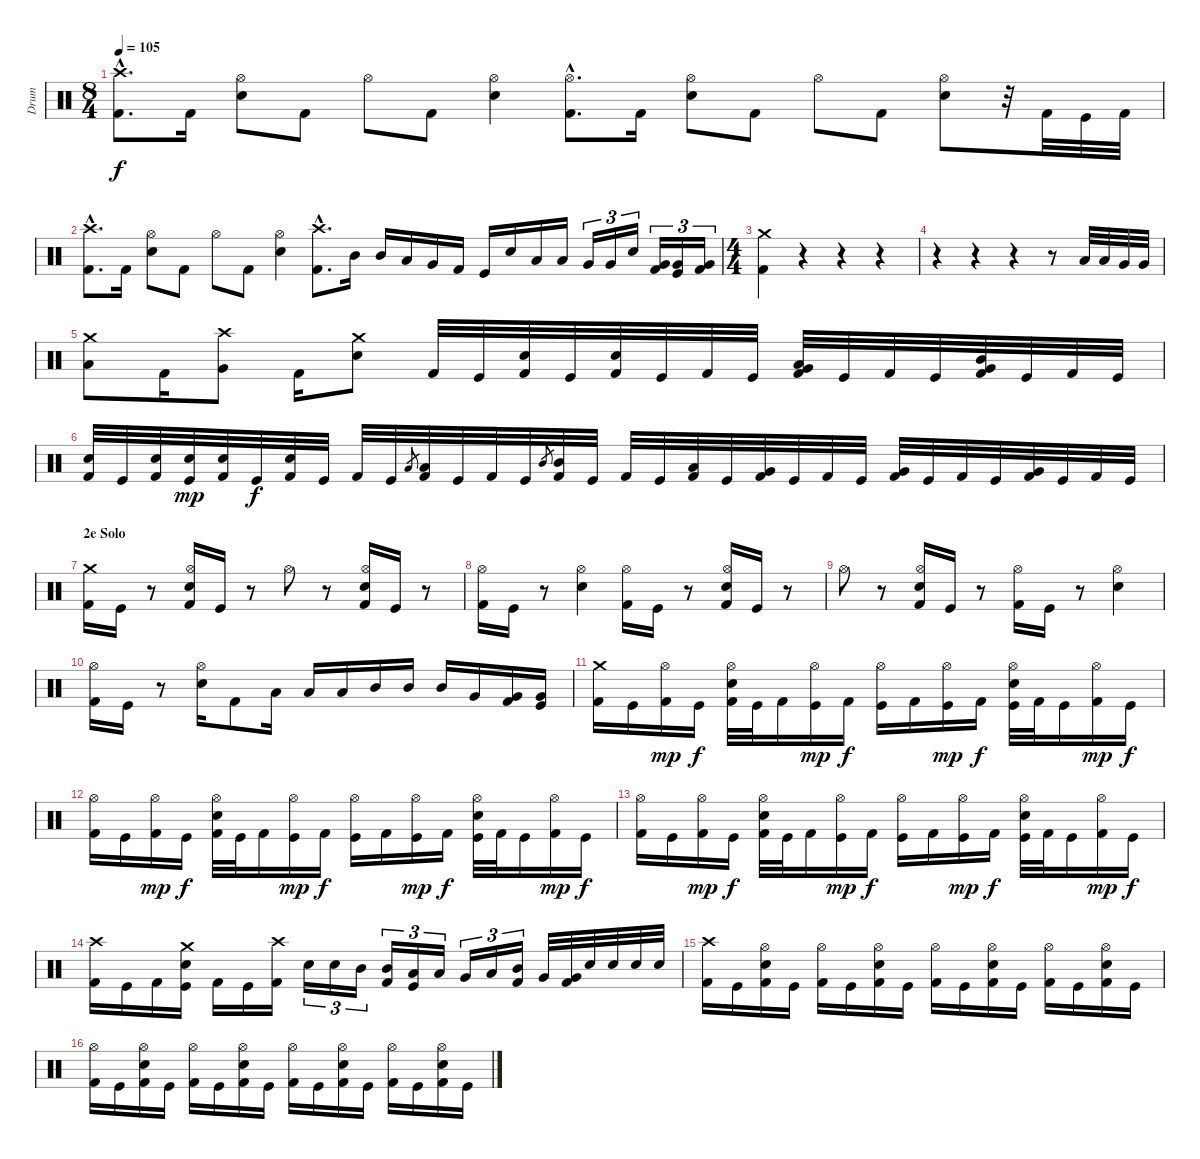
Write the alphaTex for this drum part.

\track ("Drum" "Drum") {instrument percussion}
\staff {score}
\articulation defaults
\ts (8 4)
\tempo 105
\clef neutral
\ks c
("Crash high (hit)"{hac} "Kick (hit) 2").8{d dy f} "Kick (hit) 2".16 ("Hi-Hat (open)" "Snare (hit) 2").8 "Kick (hit) 2".8 "Hi-Hat (open)".8 "Kick (hit) 2".8 ("Hi-Hat (open)" "Snare (hit) 2").4 ("Hi-Hat (open)"{hac} "Kick (hit) 2").8{d} "Kick (hit) 2".16 ("Hi-Hat (open)" "Snare (hit) 2").8 "Kick (hit) 2".8 "Hi-Hat (open)".8 "Kick (hit) 2".8 ("Hi-Hat (open)" "Snare (hit) 2").8 r.32 "Kick (hit) 2".32 "Kick (hit)".32 "Kick (hit) 2".32 |
("Crash high (hit)"{hac} "Kick (hit) 2").8{d} "Kick (hit) 2".16 ("Hi-Hat (open)" "Snare (hit) 2").8 "Kick (hit) 2".8 "Hi-Hat (open)".8 "Kick (hit) 2".8 ("Hi-Hat (open)" "Snare (hit) 2").4 ("Crash high (hit)"{hac} "Kick (hit) 2").8{d} "Mid Tom (hit)".16 "Mid Tom (hit)".16 "Low Tom (hit)".16 "Very Low Tom (hit)".16 "Kick (hit) 2".16 "Kick (hit)".16 "Snare (hit) 2".16 "Low Tom (hit)".16 "Low Tom (hit)".16 "Very Low Tom (hit)".16{tu (3 2)} "Very Low Tom (hit)".16{tu (3 2)} "Snare (hit) 2".16{tu (3 2)} ("Very Low Tom (hit)" "Kick (hit) 2").16{tu (3 2)} ("Very Low Tom (hit)" "Kick (hit)").16{tu (3 2)} ("Very Low Tom (hit)" "Kick (hit) 2").16{tu (3 2)} |
\ts (4 4)
("Crash medium (hit)" "Kick (hit) 2").4 r.4 r.4 r.4 |
r.4 r.4 r.4 r.8 "Low Tom (hit)".32 "Low Tom (hit)".32 "Very Low Tom (hit)".32 "Very Low Tom (hit)".32 |
("Crash medium (hit)" "Low Tom (hit)").8 "Kick (hit) 2".16 ("Crash high (hit)" "Very Low Tom (hit)").8 "Kick (hit) 2".16 ("Crash medium (hit)" "Snare (hit) 2").8 "Kick (hit) 2".32 "Kick (hit)".32 ("Snare (hit) 2" "Kick (hit) 2").32 "Kick (hit)".32 ("Snare (hit) 2" "Kick (hit) 2").32 "Kick (hit)".32 "Kick (hit) 2".32 "Kick (hit)".32 ("Low Tom (hit)" "Very Low Tom (hit)" "Kick (hit) 2").32 "Kick (hit)".32 "Kick (hit) 2".32 "Kick (hit)".32 ("Mid Tom (hit)" "Very Low Tom (hit)" "Kick (hit) 2").32 "Kick (hit)".32 "Kick (hit) 2".32 "Kick (hit)".32 |
("Snare (hit) 2" "Kick (hit) 2").32 "Kick (hit)".32 ("Snare (hit) 2" "Kick (hit) 2").32 ("Snare (hit) 2" "Kick (hit)").32{dy mp} ("Snare (hit) 2" "Kick (hit) 2").32 "Kick (hit)".32{dy f} ("Snare (hit) 2" "Kick (hit) 2").32 "Kick (hit)".32 "Kick (hit) 2".32 "Kick (hit)".32 "Low Tom (hit)".8{gr} ("Low Tom (hit)" "Kick (hit) 2").32 "Kick (hit)".32 "Kick (hit) 2".32 "Kick (hit)".32 "Mid Tom (hit)".8{gr} ("Mid Tom (hit)" "Kick (hit) 2").32 "Kick (hit)".32 "Kick (hit) 2".32 "Kick (hit)".32 ("Low Tom (hit)" "Kick (hit) 2").32 "Kick (hit)".32 ("Very Low Tom (hit)" "Kick (hit) 2").32 "Kick (hit)".32 "Kick (hit) 2".32 "Kick (hit)".32 ("Very Low Tom (hit)" "Kick (hit) 2").32 "Kick (hit)".32 "Kick (hit) 2".32 "Kick (hit)".32 ("Very Low Tom (hit)" "Kick (hit) 2").32 "Kick (hit)".32 "Kick (hit) 2".32 "Kick (hit)".32 |
\section ("" "2e Solo")
("Crash medium (hit)" "Kick (hit) 2").16 "Kick (hit)".16 r.8 ("Hi-Hat (open)" "Snare (hit) 2" "Kick (hit) 2").16 "Kick (hit)".16 r.8 "Hi-Hat (open)".8 r.8 ("Hi-Hat (open)" "Snare (hit) 2" "Kick (hit) 2").16 "Kick (hit)".16 r.8 |
("Hi-Hat (open)" "Kick (hit) 2").16 "Kick (hit)".16 r.8 ("Hi-Hat (open)" "Snare (hit) 2").4 ("Hi-Hat (open)" "Kick (hit) 2").16 "Kick (hit)".16 r.8 ("Hi-Hat (open)" "Snare (hit) 2" "Kick (hit) 2").16 "Kick (hit)".16 r.8 |
"Hi-Hat (open)".8 r.8 ("Hi-Hat (open)" "Snare (hit) 2" "Kick (hit) 2").16 "Kick (hit)".16 r.8 ("Hi-Hat (open)" "Kick (hit) 2").16 "Kick (hit)".16 r.8 ("Hi-Hat (open)" "Snare (hit) 2").4 |
("Hi-Hat (open)" "Kick (hit) 2").16 "Kick (hit)".16 r.8 ("Hi-Hat (open)" "Snare (hit) 2").16 "Kick (hit) 2".8 "Low Tom (hit)".16 "Low Tom (hit)".16 "Low Tom (hit)".16 "Mid Tom (hit)".16 "Mid Tom (hit)".16 "Mid Tom (hit)".16 "Very Low Tom (hit)".16 ("Very Low Tom (hit)" "Kick (hit) 2").16 ("Very Low Tom (hit)" "Kick (hit)").16 |
("Crash medium (hit)" "Kick (hit) 2").16 "Kick (hit)".16 ("Hi-Hat (open)" "Kick (hit) 2").16{dy mp} "Kick (hit)".16{dy f} ("Hi-Hat (open)" "Snare (hit) 2" "Kick (hit) 2").32 "Kick (hit)".32 "Kick (hit) 2".16 ("Hi-Hat (open)" "Kick (hit)").16{dy mp} "Kick (hit) 2".16{dy f} ("Hi-Hat (open)" "Kick (hit)").16 "Kick (hit) 2".16 ("Hi-Hat (open)" "Kick (hit)").16{dy mp} "Kick (hit) 2".16{dy f} ("Hi-Hat (open)" "Snare (hit) 2" "Kick (hit)").32 "Kick (hit) 2".32 "Kick (hit)".16 ("Hi-Hat (open)" "Kick (hit) 2").16{dy mp} "Kick (hit)".16{dy f} |
("Hi-Hat (open)" "Kick (hit) 2").16 "Kick (hit)".16 ("Hi-Hat (open)" "Kick (hit) 2").16{dy mp} "Kick (hit)".16{dy f} ("Hi-Hat (open)" "Snare (hit) 2" "Kick (hit) 2").32 "Kick (hit)".32 "Kick (hit) 2".16 ("Hi-Hat (open)" "Kick (hit)").16{dy mp} "Kick (hit) 2".16{dy f} ("Hi-Hat (open)" "Kick (hit)").16 "Kick (hit) 2".16 ("Hi-Hat (open)" "Kick (hit)").16{dy mp} "Kick (hit) 2".16{dy f} ("Hi-Hat (open)" "Snare (hit) 2" "Kick (hit)").32 "Kick (hit) 2".32 "Kick (hit)".16 ("Hi-Hat (open)" "Kick (hit) 2").16{dy mp} "Kick (hit)".16{dy f} |
("Hi-Hat (open)" "Kick (hit) 2").16 "Kick (hit)".16 ("Hi-Hat (open)" "Kick (hit) 2").16{dy mp} "Kick (hit)".16{dy f} ("Hi-Hat (open)" "Snare (hit) 2" "Kick (hit) 2").32 "Kick (hit)".32 "Kick (hit) 2".16 ("Hi-Hat (open)" "Kick (hit)").16{dy mp} "Kick (hit) 2".16{dy f} ("Hi-Hat (open)" "Kick (hit)").16 "Kick (hit) 2".16 ("Hi-Hat (open)" "Kick (hit)").16{dy mp} "Kick (hit) 2".16{dy f} ("Hi-Hat (open)" "Snare (hit) 2" "Kick (hit)").32 "Kick (hit) 2".32 "Kick (hit)".16 ("Hi-Hat (open)" "Kick (hit) 2").16{dy mp} "Kick (hit)".16{dy f} |
("Crash high (hit)" "Kick (hit) 2").16 "Kick (hit)".16 "Kick (hit) 2".16 ("Crash medium (hit)" "Snare (hit) 2" "Kick (hit)").16 "Kick (hit) 2".16 "Kick (hit)".16 ("Crash high (hit)" "Kick (hit) 2").16 "Snare (hit) 2".16{tu (3 2)} "Snare (hit) 2".16{tu (3 2)} "Mid Tom (hit)".16{tu (3 2)} ("Mid Tom (hit)" "Kick (hit) 2").16{tu (3 2)} ("Low Tom (hit)" "Kick (hit)").16{tu (3 2)} "Low Tom (hit)".16{tu (3 2)} "Very Low Tom (hit)".16{tu (3 2)} "Low Tom (hit)".16{tu (3 2)} ("Mid Tom (hit)" "Kick (hit) 2").16{tu (3 2)} "Very Low Tom (hit)".32 ("Very Low Tom (hit)" "Kick (hit) 2").32 "Snare (hit) 2".32 "Snare (hit) 2".32 "Snare (hit) 2".32 "Snare (hit) 2".32 |
("Crash high (hit)" "Kick (hit) 2").16 "Kick (hit)".16 ("Hi-Hat (open)" "Snare (hit) 2" "Kick (hit) 2").16 "Kick (hit)".16 ("Hi-Hat (open)" "Kick (hit) 2").16 "Kick (hit)".16 ("Hi-Hat (open)" "Snare (hit) 2" "Kick (hit) 2").16 "Kick (hit)".16 ("Hi-Hat (open)" "Kick (hit) 2").16 "Kick (hit)".16 ("Hi-Hat (open)" "Snare (hit) 2" "Kick (hit) 2").16 "Kick (hit)".16 ("Hi-Hat (open)" "Kick (hit) 2").16 "Kick (hit)".16 ("Hi-Hat (open)" "Snare (hit) 2" "Kick (hit) 2").16 "Kick (hit)".16 |
("Hi-Hat (open)" "Kick (hit) 2").16 "Kick (hit)".16 ("Hi-Hat (open)" "Snare (hit) 2" "Kick (hit) 2").16 "Kick (hit)".16 ("Hi-Hat (open)" "Kick (hit) 2").16 "Kick (hit)".16 ("Hi-Hat (open)" "Snare (hit) 2" "Kick (hit) 2").16 "Kick (hit)".16 ("Hi-Hat (open)" "Kick (hit) 2").16 "Kick (hit)".16 ("Hi-Hat (open)" "Snare (hit) 2" "Kick (hit) 2").16 "Kick (hit)".16 ("Hi-Hat (open)" "Kick (hit) 2").16 "Kick (hit)".16 ("Hi-Hat (open)" "Snare (hit) 2" "Kick (hit) 2").16 "Kick (hit)".16
